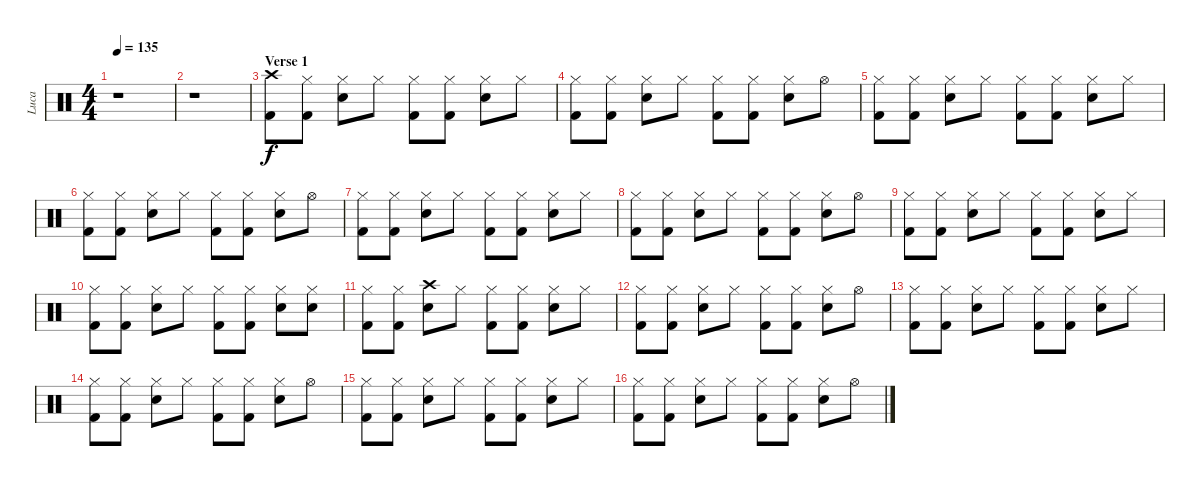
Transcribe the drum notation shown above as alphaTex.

\track ("Luca" "Luca") {instrument percussion}
\staff {score}
\articulation defaults
\ts (4 4)
\tempo 135
\clef neutral
\ks c
r.1{dy f} |
r.1 |
\section ("" "Verse 1")
("Crash high (hit)" "Kick (hit) 2").8 ("Hi-Hat (closed)" "Kick (hit) 2").8 ("Hi-Hat (closed)" "Snare (hit) 2").8 "Hi-Hat (closed)".8 ("Hi-Hat (closed)" "Kick (hit) 2").8 ("Hi-Hat (closed)" "Kick (hit) 2").8 ("Hi-Hat (closed)" "Snare (hit) 2").8 "Hi-Hat (closed)".8 |
("Hi-Hat (closed)" "Kick (hit) 2").8 ("Hi-Hat (closed)" "Kick (hit) 2").8 ("Hi-Hat (closed)" "Snare (hit) 2").8 "Hi-Hat (closed)".8 ("Hi-Hat (closed)" "Kick (hit) 2").8 ("Hi-Hat (closed)" "Kick (hit) 2").8 ("Hi-Hat (closed)" "Snare (hit) 2").8 "Hi-Hat (open)".8 |
("Hi-Hat (closed)" "Kick (hit) 2").8 ("Hi-Hat (closed)" "Kick (hit) 2").8 ("Hi-Hat (closed)" "Snare (hit) 2").8 "Hi-Hat (closed)".8 ("Hi-Hat (closed)" "Kick (hit) 2").8 ("Hi-Hat (closed)" "Kick (hit) 2").8 ("Hi-Hat (closed)" "Snare (hit) 2").8 "Hi-Hat (closed)".8 |
("Hi-Hat (closed)" "Kick (hit) 2").8 ("Hi-Hat (closed)" "Kick (hit) 2").8 ("Hi-Hat (closed)" "Snare (hit) 2").8 "Hi-Hat (closed)".8 ("Hi-Hat (closed)" "Kick (hit) 2").8 ("Hi-Hat (closed)" "Kick (hit) 2").8 ("Hi-Hat (closed)" "Snare (hit) 2").8 "Hi-Hat (open)".8 |
("Hi-Hat (closed)" "Kick (hit) 2").8 ("Hi-Hat (closed)" "Kick (hit) 2").8 ("Hi-Hat (closed)" "Snare (hit) 2").8 "Hi-Hat (closed)".8 ("Hi-Hat (closed)" "Kick (hit) 2").8 ("Hi-Hat (closed)" "Kick (hit) 2").8 ("Hi-Hat (closed)" "Snare (hit) 2").8 "Hi-Hat (closed)".8 |
("Hi-Hat (closed)" "Kick (hit) 2").8 ("Hi-Hat (closed)" "Kick (hit) 2").8 ("Hi-Hat (closed)" "Snare (hit) 2").8 "Hi-Hat (closed)".8 ("Hi-Hat (closed)" "Kick (hit) 2").8 ("Hi-Hat (closed)" "Kick (hit) 2").8 ("Hi-Hat (closed)" "Snare (hit) 2").8 "Hi-Hat (open)".8 |
("Hi-Hat (closed)" "Kick (hit) 2").8 ("Hi-Hat (closed)" "Kick (hit) 2").8 ("Hi-Hat (closed)" "Snare (hit) 2").8 "Hi-Hat (closed)".8 ("Hi-Hat (closed)" "Kick (hit) 2").8 ("Hi-Hat (closed)" "Kick (hit) 2").8 ("Hi-Hat (closed)" "Snare (hit) 2").8 "Hi-Hat (closed)".8 |
("Hi-Hat (closed)" "Kick (hit) 2").8 ("Hi-Hat (closed)" "Kick (hit) 2").8 ("Hi-Hat (closed)" "Snare (hit) 2").8 "Hi-Hat (closed)".8 ("Hi-Hat (closed)" "Kick (hit) 2").8 ("Hi-Hat (closed)" "Kick (hit) 2").8 ("Hi-Hat (closed)" "Snare (hit) 2").8 ("Hi-Hat (closed)" "Snare (hit) 2").8 |
("Hi-Hat (closed)" "Kick (hit) 2").8 ("Hi-Hat (closed)" "Kick (hit) 2").8 ("Crash high (hit)" "Snare (hit) 2").8 "Hi-Hat (closed)".8 ("Hi-Hat (closed)" "Kick (hit) 2").8 ("Hi-Hat (closed)" "Kick (hit) 2").8 ("Hi-Hat (closed)" "Snare (hit) 2").8 "Hi-Hat (closed)".8 |
("Hi-Hat (closed)" "Kick (hit) 2").8 ("Hi-Hat (closed)" "Kick (hit) 2").8 ("Hi-Hat (closed)" "Snare (hit) 2").8 "Hi-Hat (closed)".8 ("Hi-Hat (closed)" "Kick (hit) 2").8 ("Hi-Hat (closed)" "Kick (hit) 2").8 ("Hi-Hat (closed)" "Snare (hit) 2").8 "Hi-Hat (open)".8 |
("Hi-Hat (closed)" "Kick (hit) 2").8 ("Hi-Hat (closed)" "Kick (hit) 2").8 ("Hi-Hat (closed)" "Snare (hit) 2").8 "Hi-Hat (closed)".8 ("Hi-Hat (closed)" "Kick (hit) 2").8 ("Hi-Hat (closed)" "Kick (hit) 2").8 ("Hi-Hat (closed)" "Snare (hit) 2").8 "Hi-Hat (closed)".8 |
("Hi-Hat (closed)" "Kick (hit) 2").8 ("Hi-Hat (closed)" "Kick (hit) 2").8 ("Hi-Hat (closed)" "Snare (hit) 2").8 "Hi-Hat (closed)".8 ("Hi-Hat (closed)" "Kick (hit) 2").8 ("Hi-Hat (closed)" "Kick (hit) 2").8 ("Hi-Hat (closed)" "Snare (hit) 2").8 "Hi-Hat (open)".8 |
("Hi-Hat (closed)" "Kick (hit) 2").8 ("Hi-Hat (closed)" "Kick (hit) 2").8 ("Hi-Hat (closed)" "Snare (hit) 2").8 "Hi-Hat (closed)".8 ("Hi-Hat (closed)" "Kick (hit) 2").8 ("Hi-Hat (closed)" "Kick (hit) 2").8 ("Hi-Hat (closed)" "Snare (hit) 2").8 "Hi-Hat (closed)".8 |
("Hi-Hat (closed)" "Kick (hit) 2").8 ("Hi-Hat (closed)" "Kick (hit) 2").8 ("Hi-Hat (closed)" "Snare (hit) 2").8 "Hi-Hat (closed)".8 ("Hi-Hat (closed)" "Kick (hit) 2").8 ("Hi-Hat (closed)" "Kick (hit) 2").8 ("Hi-Hat (closed)" "Snare (hit) 2").8 "Hi-Hat (open)".8
